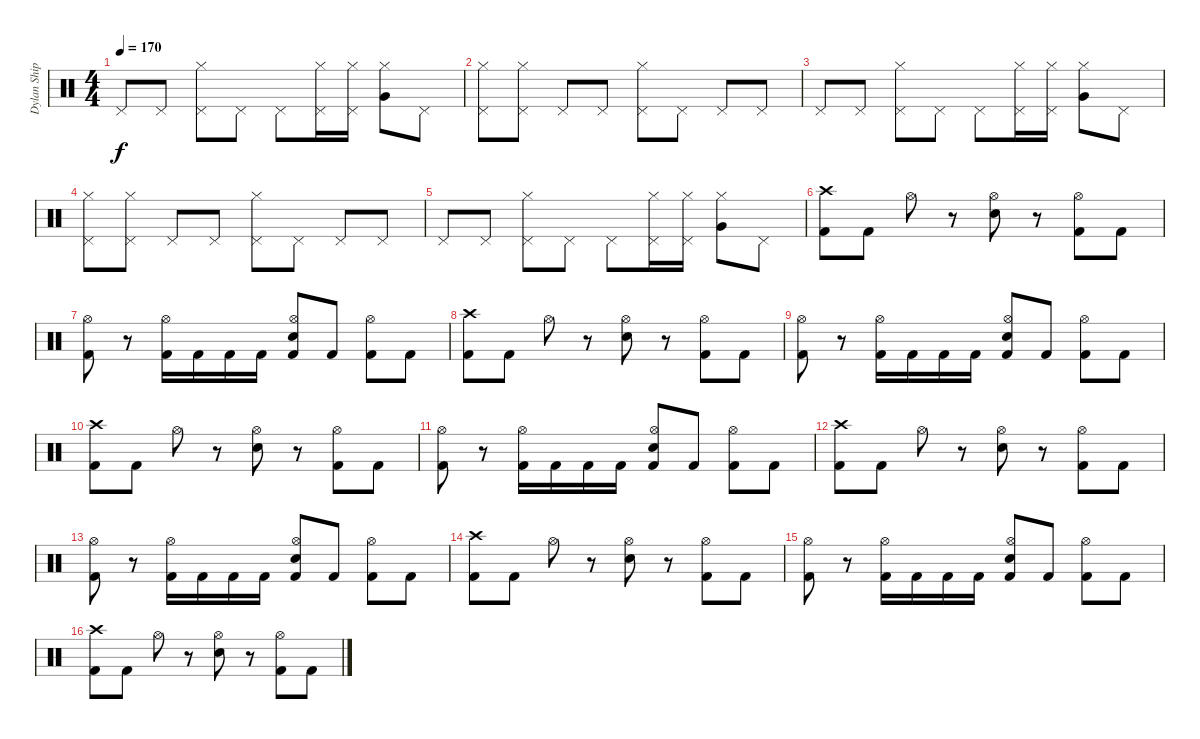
\track ("Dylan Shippey" "Dylan Ship") {instrument percussion}
\staff {score}
\articulation defaults
\ts (4 4)
\tempo 170
\clef neutral
\ks c "Pedal Hi-Hat (hit)".8{dy f} "Pedal Hi-Hat (hit)".8
("Pedal Hi-Hat (hit)" "Hi-Hat (closed)").8 "Pedal Hi-Hat (hit)".8 "Pedal Hi-Hat (hit)".8 ("Pedal Hi-Hat (hit)" "Hi-Hat (closed)").16 ("Pedal Hi-Hat (hit)" "Hi-Hat (closed)").16 ("Very Low Tom (hit)" "Hi-Hat (closed)").8 "Pedal Hi-Hat (hit)".8 |
("Pedal Hi-Hat (hit)" "Hi-Hat (closed)").8 ("Pedal Hi-Hat (hit)" "Hi-Hat (closed)").8 "Pedal Hi-Hat (hit)".8 "Pedal Hi-Hat (hit)".8 ("Pedal Hi-Hat (hit)" "Hi-Hat (closed)").8 "Pedal Hi-Hat (hit)".8 "Pedal Hi-Hat (hit)".8 "Pedal Hi-Hat (hit)".8 |
"Pedal Hi-Hat (hit)".8 "Pedal Hi-Hat (hit)".8 ("Pedal Hi-Hat (hit)" "Hi-Hat (closed)").8 "Pedal Hi-Hat (hit)".8 "Pedal Hi-Hat (hit)".8 ("Pedal Hi-Hat (hit)" "Hi-Hat (closed)").16 ("Pedal Hi-Hat (hit)" "Hi-Hat (closed)").16 ("Very Low Tom (hit)" "Hi-Hat (closed)").8 "Pedal Hi-Hat (hit)".8 |
("Pedal Hi-Hat (hit)" "Hi-Hat (closed)").8 ("Pedal Hi-Hat (hit)" "Hi-Hat (closed)").8 "Pedal Hi-Hat (hit)".8 "Pedal Hi-Hat (hit)".8 ("Pedal Hi-Hat (hit)" "Hi-Hat (closed)").8 "Pedal Hi-Hat (hit)".8 "Pedal Hi-Hat (hit)".8 "Pedal Hi-Hat (hit)".8 |
"Pedal Hi-Hat (hit)".8 "Pedal Hi-Hat (hit)".8 ("Pedal Hi-Hat (hit)" "Hi-Hat (closed)").8 "Pedal Hi-Hat (hit)".8 "Pedal Hi-Hat (hit)".8 ("Pedal Hi-Hat (hit)" "Hi-Hat (closed)").16 ("Pedal Hi-Hat (hit)" "Hi-Hat (closed)").16 ("Very Low Tom (hit)" "Hi-Hat (closed)").8 "Pedal Hi-Hat (hit)".8 |
("Crash high (hit)" "Kick (hit) 2").8 "Kick (hit) 2".8 "Hi-Hat (open)".8 r.8 ("Hi-Hat (open)" "Electric Snare (hit)").8 r.8 ("Hi-Hat (open)" "Kick (hit) 2").8 "Kick (hit) 2".8 |
("Hi-Hat (open)" "Kick (hit) 2").8 r.8 ("Hi-Hat (open)" "Kick (hit) 2").16 "Kick (hit) 2".16 "Kick (hit) 2".16 "Kick (hit) 2".16 ("Hi-Hat (open)" "Electric Snare (hit)" "Kick (hit) 2").8 "Kick (hit) 2".8 ("Hi-Hat (open)" "Kick (hit) 2").8 "Kick (hit) 2".8 |
("Crash high (hit)" "Kick (hit) 2").8 "Kick (hit) 2".8 "Hi-Hat (open)".8 r.8 ("Hi-Hat (open)" "Electric Snare (hit)").8 r.8 ("Hi-Hat (open)" "Kick (hit) 2").8 "Kick (hit) 2".8 |
("Hi-Hat (open)" "Kick (hit) 2").8 r.8 ("Hi-Hat (open)" "Kick (hit) 2").16 "Kick (hit) 2".16 "Kick (hit) 2".16 "Kick (hit) 2".16 ("Hi-Hat (open)" "Electric Snare (hit)" "Kick (hit) 2").8 "Kick (hit) 2".8 ("Hi-Hat (open)" "Kick (hit) 2").8 "Kick (hit) 2".8 |
("Crash high (hit)" "Kick (hit) 2").8 "Kick (hit) 2".8 "Hi-Hat (open)".8 r.8 ("Hi-Hat (open)" "Electric Snare (hit)").8 r.8 ("Hi-Hat (open)" "Kick (hit) 2").8 "Kick (hit) 2".8 |
("Hi-Hat (open)" "Kick (hit) 2").8 r.8 ("Hi-Hat (open)" "Kick (hit) 2").16 "Kick (hit) 2".16 "Kick (hit) 2".16 "Kick (hit) 2".16 ("Hi-Hat (open)" "Electric Snare (hit)" "Kick (hit) 2").8 "Kick (hit) 2".8 ("Hi-Hat (open)" "Kick (hit) 2").8 "Kick (hit) 2".8 |
("Crash high (hit)" "Kick (hit) 2").8 "Kick (hit) 2".8 "Hi-Hat (open)".8 r.8 ("Hi-Hat (open)" "Electric Snare (hit)").8 r.8 ("Hi-Hat (open)" "Kick (hit) 2").8 "Kick (hit) 2".8 |
("Hi-Hat (open)" "Kick (hit) 2").8 r.8 ("Hi-Hat (open)" "Kick (hit) 2").16 "Kick (hit) 2".16 "Kick (hit) 2".16 "Kick (hit) 2".16 ("Hi-Hat (open)" "Electric Snare (hit)" "Kick (hit) 2").8 "Kick (hit) 2".8 ("Hi-Hat (open)" "Kick (hit) 2").8 "Kick (hit) 2".8 |
("Crash high (hit)" "Kick (hit) 2").8 "Kick (hit) 2".8 "Hi-Hat (open)".8 r.8 ("Hi-Hat (open)" "Electric Snare (hit)").8 r.8 ("Hi-Hat (open)" "Kick (hit) 2").8 "Kick (hit) 2".8 |
("Hi-Hat (open)" "Kick (hit) 2").8 r.8 ("Hi-Hat (open)" "Kick (hit) 2").16 "Kick (hit) 2".16 "Kick (hit) 2".16 "Kick (hit) 2".16 ("Hi-Hat (open)" "Electric Snare (hit)" "Kick (hit) 2").8 "Kick (hit) 2".8 ("Hi-Hat (open)" "Kick (hit) 2").8 "Kick (hit) 2".8 |
("Crash high (hit)" "Kick (hit) 2").8 "Kick (hit) 2".8 "Hi-Hat (open)".8 r.8 ("Hi-Hat (open)" "Electric Snare (hit)").8 r.8 ("Hi-Hat (open)" "Kick (hit) 2").8 "Kick (hit) 2".8
